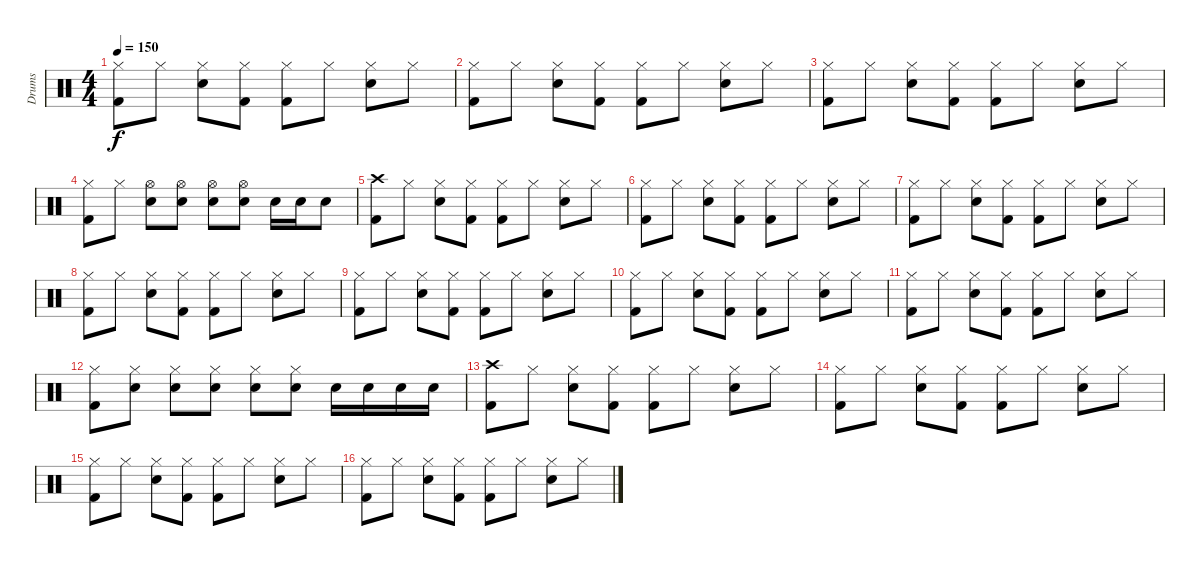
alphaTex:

\track ("Drums" "Drums") {instrument percussion}
\staff {score}
\articulation defaults
\ts (4 4)
\tempo 150
\clef neutral
\ks c
("Hi-Hat (closed)" "Kick (hit) 2").8{dy f} "Hi-Hat (closed)".8 ("Hi-Hat (closed)" "Snare (hit) 2").8 ("Hi-Hat (closed)" "Kick (hit) 2").8 ("Hi-Hat (closed)" "Kick (hit) 2").8 "Hi-Hat (closed)".8 ("Hi-Hat (closed)" "Snare (hit) 2").8 "Hi-Hat (closed)".8 |
("Hi-Hat (closed)" "Kick (hit) 2").8 "Hi-Hat (closed)".8 ("Hi-Hat (closed)" "Snare (hit) 2").8 ("Hi-Hat (closed)" "Kick (hit) 2").8 ("Hi-Hat (closed)" "Kick (hit) 2").8 "Hi-Hat (closed)".8 ("Hi-Hat (closed)" "Snare (hit) 2").8 "Hi-Hat (closed)".8 |
("Hi-Hat (closed)" "Kick (hit) 2").8 "Hi-Hat (closed)".8 ("Hi-Hat (closed)" "Snare (hit) 2").8 ("Hi-Hat (closed)" "Kick (hit) 2").8 ("Hi-Hat (closed)" "Kick (hit) 2").8 "Hi-Hat (closed)".8 ("Hi-Hat (closed)" "Snare (hit) 2").8 "Hi-Hat (closed)".8 |
("Hi-Hat (closed)" "Kick (hit) 2").8 "Hi-Hat (closed)".8 ("Hi-Hat (open)" "Snare (hit) 2").8 ("Hi-Hat (open)" "Snare (hit) 2").8 ("Hi-Hat (open)" "Snare (hit) 2").8 ("Hi-Hat (open)" "Snare (hit) 2").8 "Snare (hit) 2".16 "Snare (hit) 2".16 "Snare (hit) 2".8 |
("Crash high (hit)" "Kick (hit) 2").8 "Hi-Hat (closed)".8 ("Hi-Hat (closed)" "Snare (hit) 2").8 ("Hi-Hat (closed)" "Kick (hit) 2").8 ("Hi-Hat (closed)" "Kick (hit) 2").8 "Hi-Hat (closed)".8 ("Hi-Hat (closed)" "Snare (hit) 2").8 "Hi-Hat (closed)".8 |
("Hi-Hat (closed)" "Kick (hit) 2").8 "Hi-Hat (closed)".8 ("Hi-Hat (closed)" "Snare (hit) 2").8 ("Hi-Hat (closed)" "Kick (hit) 2").8 ("Hi-Hat (closed)" "Kick (hit) 2").8 "Hi-Hat (closed)".8 ("Hi-Hat (closed)" "Snare (hit) 2").8 "Hi-Hat (closed)".8 |
("Hi-Hat (closed)" "Kick (hit) 2").8 "Hi-Hat (closed)".8 ("Hi-Hat (closed)" "Snare (hit) 2").8 ("Hi-Hat (closed)" "Kick (hit) 2").8 ("Hi-Hat (closed)" "Kick (hit) 2").8 "Hi-Hat (closed)".8 ("Hi-Hat (closed)" "Snare (hit) 2").8 "Hi-Hat (closed)".8 |
("Hi-Hat (closed)" "Kick (hit) 2").8 "Hi-Hat (closed)".8 ("Hi-Hat (closed)" "Snare (hit) 2").8 ("Hi-Hat (closed)" "Kick (hit) 2").8 ("Hi-Hat (closed)" "Kick (hit) 2").8 "Hi-Hat (closed)".8 ("Hi-Hat (closed)" "Snare (hit) 2").8 "Hi-Hat (closed)".8 |
("Hi-Hat (closed)" "Kick (hit) 2").8 "Hi-Hat (closed)".8 ("Hi-Hat (closed)" "Snare (hit) 2").8 ("Hi-Hat (closed)" "Kick (hit) 2").8 ("Hi-Hat (closed)" "Kick (hit) 2").8 "Hi-Hat (closed)".8 ("Hi-Hat (closed)" "Snare (hit) 2").8 "Hi-Hat (closed)".8 |
("Hi-Hat (closed)" "Kick (hit) 2").8 "Hi-Hat (closed)".8 ("Hi-Hat (closed)" "Snare (hit) 2").8 ("Hi-Hat (closed)" "Kick (hit) 2").8 ("Hi-Hat (closed)" "Kick (hit) 2").8 "Hi-Hat (closed)".8 ("Hi-Hat (closed)" "Snare (hit) 2").8 "Hi-Hat (closed)".8 |
("Hi-Hat (closed)" "Kick (hit) 2").8 "Hi-Hat (closed)".8 ("Hi-Hat (closed)" "Snare (hit) 2").8 ("Hi-Hat (closed)" "Kick (hit) 2").8 ("Hi-Hat (closed)" "Kick (hit) 2").8 "Hi-Hat (closed)".8 ("Hi-Hat (closed)" "Snare (hit) 2").8 "Hi-Hat (closed)".8 |
("Hi-Hat (closed)" "Kick (hit) 2").8 ("Hi-Hat (closed)" "Snare (hit) 2").8 ("Hi-Hat (closed)" "Snare (hit) 2").8 ("Hi-Hat (closed)" "Snare (hit) 2").8 ("Hi-Hat (closed)" "Snare (hit) 2").8 ("Hi-Hat (closed)" "Snare (hit) 2").8 "Snare (hit) 2".16 "Snare (hit) 2".16 "Snare (hit) 2".16 "Snare (hit) 2".16 |
("Crash high (hit)" "Kick (hit) 2").8 "Hi-Hat (closed)".8 ("Hi-Hat (closed)" "Snare (hit) 2").8 ("Hi-Hat (closed)" "Kick (hit) 2").8 ("Hi-Hat (closed)" "Kick (hit) 2").8 "Hi-Hat (closed)".8 ("Hi-Hat (closed)" "Snare (hit) 2").8 "Hi-Hat (closed)".8 |
("Hi-Hat (closed)" "Kick (hit) 2").8 "Hi-Hat (closed)".8 ("Hi-Hat (closed)" "Snare (hit) 2").8 ("Hi-Hat (closed)" "Kick (hit) 2").8 ("Hi-Hat (closed)" "Kick (hit) 2").8 "Hi-Hat (closed)".8 ("Hi-Hat (closed)" "Snare (hit) 2").8 "Hi-Hat (closed)".8 |
("Hi-Hat (closed)" "Kick (hit) 2").8 "Hi-Hat (closed)".8 ("Hi-Hat (closed)" "Snare (hit) 2").8 ("Hi-Hat (closed)" "Kick (hit) 2").8 ("Hi-Hat (closed)" "Kick (hit) 2").8 "Hi-Hat (closed)".8 ("Hi-Hat (closed)" "Snare (hit) 2").8 "Hi-Hat (closed)".8 |
("Hi-Hat (closed)" "Kick (hit) 2").8 "Hi-Hat (closed)".8 ("Hi-Hat (closed)" "Snare (hit) 2").8 ("Hi-Hat (closed)" "Kick (hit) 2").8 ("Hi-Hat (closed)" "Kick (hit) 2").8 "Hi-Hat (closed)".8 ("Hi-Hat (closed)" "Snare (hit) 2").8 "Hi-Hat (closed)".8
